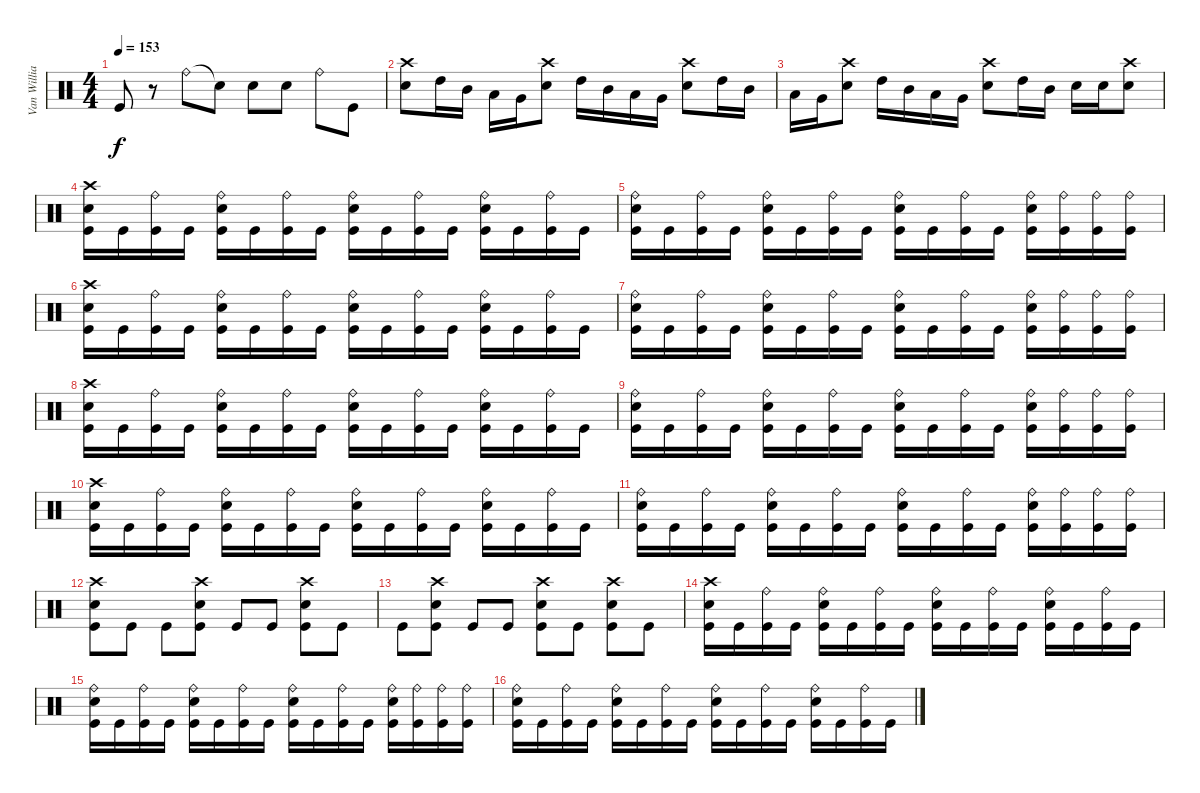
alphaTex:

\track ("Van Williams" "Van Willia") {instrument percussion}
\staff {score}
\articulation defaults
\ts (4 4)
\tempo 153
\clef neutral
\ks c "Kick (hit)".8{dy f}
r.8 "Ride (bell)".8 "Snare (hit)"{t}.8 "Electric Snare (hit)".8 "Electric Snare (hit)".8 "Ride (bell)".8 "Kick (hit)".8 |
("Crash high (hit)" "Electric Snare (hit)").8 "High Tom (hit)".16 "Mid Tom (hit)".16 "Low Tom (hit)".16 "Very Low Tom (hit)".16 ("Crash high (hit)" "Electric Snare (hit)").8 "High Tom (hit)".16 "Mid Tom (hit)".16 "Low Tom (hit)".16 "Very Low Tom (hit)".16 ("Crash high (hit)" "Electric Snare (hit)").8 "High Tom (hit)".16 "Mid Tom (hit)".16 |
"Low Tom (hit)".16 "Very Low Tom (hit)".16 ("Crash high (hit)" "Electric Snare (hit)").8 "High Tom (hit)".16 "Mid Tom (hit)".16 "Low Tom (hit)".16 "Very Low Tom (hit)".16 ("Crash high (hit)" "Electric Snare (hit)").8 "High Tom (hit)".16 "Mid Tom (hit)".16 "Electric Snare (hit)".16 "Electric Snare (hit)".16 ("Crash high (hit)" "Electric Snare (hit)").8 |
("Crash high (hit)" "Electric Snare (hit)" "Kick (hit)").16 "Kick (hit)".16 ("Ride (bell)" "Kick (hit)").16 "Kick (hit)".16 ("Ride (bell)" "Electric Snare (hit)" "Kick (hit)").16 "Kick (hit)".16 ("Ride (bell)" "Kick (hit)").16 "Kick (hit)".16 ("Ride (bell)" "Electric Snare (hit)" "Kick (hit)").16 "Kick (hit)".16 ("Ride (bell)" "Kick (hit)").16 "Kick (hit)".16 ("Ride (bell)" "Electric Snare (hit)" "Kick (hit)").16 "Kick (hit)".16 ("Ride (bell)" "Kick (hit)").16 "Kick (hit)".16 |
("Ride (bell)" "Electric Snare (hit)" "Kick (hit)").16 "Kick (hit)".16 ("Ride (bell)" "Kick (hit)").16 "Kick (hit)".16 ("Ride (bell)" "Electric Snare (hit)" "Kick (hit)").16 "Kick (hit)".16 ("Ride (bell)" "Kick (hit)").16 "Kick (hit)".16 ("Ride (bell)" "Electric Snare (hit)" "Kick (hit)").16 "Kick (hit)".16 ("Ride (bell)" "Kick (hit)").16 "Kick (hit)".16 ("Ride (bell)" "Electric Snare (hit)" "Kick (hit)").16 ("Ride (bell)" "Kick (hit)").16 ("Ride (bell)" "Kick (hit)").16 ("Ride (bell)" "Kick (hit)").16 |
("Crash high (hit)" "Electric Snare (hit)" "Kick (hit)").16 "Kick (hit)".16 ("Ride (bell)" "Kick (hit)").16 "Kick (hit)".16 ("Ride (bell)" "Electric Snare (hit)" "Kick (hit)").16 "Kick (hit)".16 ("Ride (bell)" "Kick (hit)").16 "Kick (hit)".16 ("Ride (bell)" "Electric Snare (hit)" "Kick (hit)").16 "Kick (hit)".16 ("Ride (bell)" "Kick (hit)").16 "Kick (hit)".16 ("Ride (bell)" "Electric Snare (hit)" "Kick (hit)").16 "Kick (hit)".16 ("Ride (bell)" "Kick (hit)").16 "Kick (hit)".16 |
("Ride (bell)" "Electric Snare (hit)" "Kick (hit)").16 "Kick (hit)".16 ("Ride (bell)" "Kick (hit)").16 "Kick (hit)".16 ("Ride (bell)" "Electric Snare (hit)" "Kick (hit)").16 "Kick (hit)".16 ("Ride (bell)" "Kick (hit)").16 "Kick (hit)".16 ("Ride (bell)" "Electric Snare (hit)" "Kick (hit)").16 "Kick (hit)".16 ("Ride (bell)" "Kick (hit)").16 "Kick (hit)".16 ("Ride (bell)" "Electric Snare (hit)" "Kick (hit)").16 ("Ride (bell)" "Kick (hit)").16 ("Ride (bell)" "Kick (hit)").16 ("Ride (bell)" "Kick (hit)").16 |
("Crash high (hit)" "Electric Snare (hit)" "Kick (hit)").16 "Kick (hit)".16 ("Ride (bell)" "Kick (hit)").16 "Kick (hit)".16 ("Ride (bell)" "Electric Snare (hit)" "Kick (hit)").16 "Kick (hit)".16 ("Ride (bell)" "Kick (hit)").16 "Kick (hit)".16 ("Ride (bell)" "Electric Snare (hit)" "Kick (hit)").16 "Kick (hit)".16 ("Ride (bell)" "Kick (hit)").16 "Kick (hit)".16 ("Ride (bell)" "Electric Snare (hit)" "Kick (hit)").16 "Kick (hit)".16 ("Ride (bell)" "Kick (hit)").16 "Kick (hit)".16 |
("Ride (bell)" "Electric Snare (hit)" "Kick (hit)").16 "Kick (hit)".16 ("Ride (bell)" "Kick (hit)").16 "Kick (hit)".16 ("Ride (bell)" "Electric Snare (hit)" "Kick (hit)").16 "Kick (hit)".16 ("Ride (bell)" "Kick (hit)").16 "Kick (hit)".16 ("Ride (bell)" "Electric Snare (hit)" "Kick (hit)").16 "Kick (hit)".16 ("Ride (bell)" "Kick (hit)").16 "Kick (hit)".16 ("Ride (bell)" "Electric Snare (hit)" "Kick (hit)").16 ("Ride (bell)" "Kick (hit)").16 ("Ride (bell)" "Kick (hit)").16 ("Ride (bell)" "Kick (hit)").16 |
("Crash high (hit)" "Electric Snare (hit)" "Kick (hit)").16 "Kick (hit)".16 ("Ride (bell)" "Kick (hit)").16 "Kick (hit)".16 ("Ride (bell)" "Electric Snare (hit)" "Kick (hit)").16 "Kick (hit)".16 ("Ride (bell)" "Kick (hit)").16 "Kick (hit)".16 ("Ride (bell)" "Electric Snare (hit)" "Kick (hit)").16 "Kick (hit)".16 ("Ride (bell)" "Kick (hit)").16 "Kick (hit)".16 ("Ride (bell)" "Electric Snare (hit)" "Kick (hit)").16 "Kick (hit)".16 ("Ride (bell)" "Kick (hit)").16 "Kick (hit)".16 |
("Ride (bell)" "Electric Snare (hit)" "Kick (hit)").16 "Kick (hit)".16 ("Ride (bell)" "Kick (hit)").16 "Kick (hit)".16 ("Ride (bell)" "Electric Snare (hit)" "Kick (hit)").16 "Kick (hit)".16 ("Ride (bell)" "Kick (hit)").16 "Kick (hit)".16 ("Ride (bell)" "Electric Snare (hit)" "Kick (hit)").16 "Kick (hit)".16 ("Ride (bell)" "Kick (hit)").16 "Kick (hit)".16 ("Ride (bell)" "Electric Snare (hit)" "Kick (hit)").16 ("Ride (bell)" "Kick (hit)").16 ("Ride (bell)" "Kick (hit)").16 ("Ride (bell)" "Kick (hit)").16 |
("Crash high (hit)" "Electric Snare (hit)" "Kick (hit)").8 "Kick (hit)".8 "Kick (hit)".8 ("Crash high (hit)" "Electric Snare (hit)" "Kick (hit)").8 "Kick (hit)".8 "Kick (hit)".8 ("Crash high (hit)" "Electric Snare (hit)" "Kick (hit)").8 "Kick (hit)".8 |
"Kick (hit)".8 ("Crash high (hit)" "Electric Snare (hit)" "Kick (hit)").8 "Kick (hit)".8 "Kick (hit)".8 ("Crash high (hit)" "Electric Snare (hit)" "Kick (hit)").8 "Kick (hit)".8 ("Crash high (hit)" "Electric Snare (hit)" "Kick (hit)").8 "Kick (hit)".8 |
("Crash high (hit)" "Electric Snare (hit)" "Kick (hit)").16 "Kick (hit)".16 ("Ride (bell)" "Kick (hit)").16 "Kick (hit)".16 ("Ride (bell)" "Electric Snare (hit)" "Kick (hit)").16 "Kick (hit)".16 ("Ride (bell)" "Kick (hit)").16 "Kick (hit)".16 ("Ride (bell)" "Electric Snare (hit)" "Kick (hit)").16 "Kick (hit)".16 ("Ride (bell)" "Kick (hit)").16 "Kick (hit)".16 ("Ride (bell)" "Electric Snare (hit)" "Kick (hit)").16 "Kick (hit)".16 ("Ride (bell)" "Kick (hit)").16 "Kick (hit)".16 |
("Ride (bell)" "Electric Snare (hit)" "Kick (hit)").16 "Kick (hit)".16 ("Ride (bell)" "Kick (hit)").16 "Kick (hit)".16 ("Ride (bell)" "Electric Snare (hit)" "Kick (hit)").16 "Kick (hit)".16 ("Ride (bell)" "Kick (hit)").16 "Kick (hit)".16 ("Ride (bell)" "Electric Snare (hit)" "Kick (hit)").16 "Kick (hit)".16 ("Ride (bell)" "Kick (hit)").16 "Kick (hit)".16 ("Ride (bell)" "Electric Snare (hit)" "Kick (hit)").16 ("Ride (bell)" "Kick (hit)").16 ("Ride (bell)" "Kick (hit)").16 ("Ride (bell)" "Kick (hit)").16 |
("Ride (bell)" "Electric Snare (hit)" "Kick (hit)").16 "Kick (hit)".16 ("Ride (bell)" "Kick (hit)").16 "Kick (hit)".16 ("Ride (bell)" "Electric Snare (hit)" "Kick (hit)").16 "Kick (hit)".16 ("Ride (bell)" "Kick (hit)").16 "Kick (hit)".16 ("Ride (bell)" "Electric Snare (hit)" "Kick (hit)").16 "Kick (hit)".16 ("Ride (bell)" "Kick (hit)").16 "Kick (hit)".16 ("Ride (bell)" "Electric Snare (hit)" "Kick (hit)").16 "Kick (hit)".16 ("Ride (bell)" "Kick (hit)").16 "Kick (hit)".16
